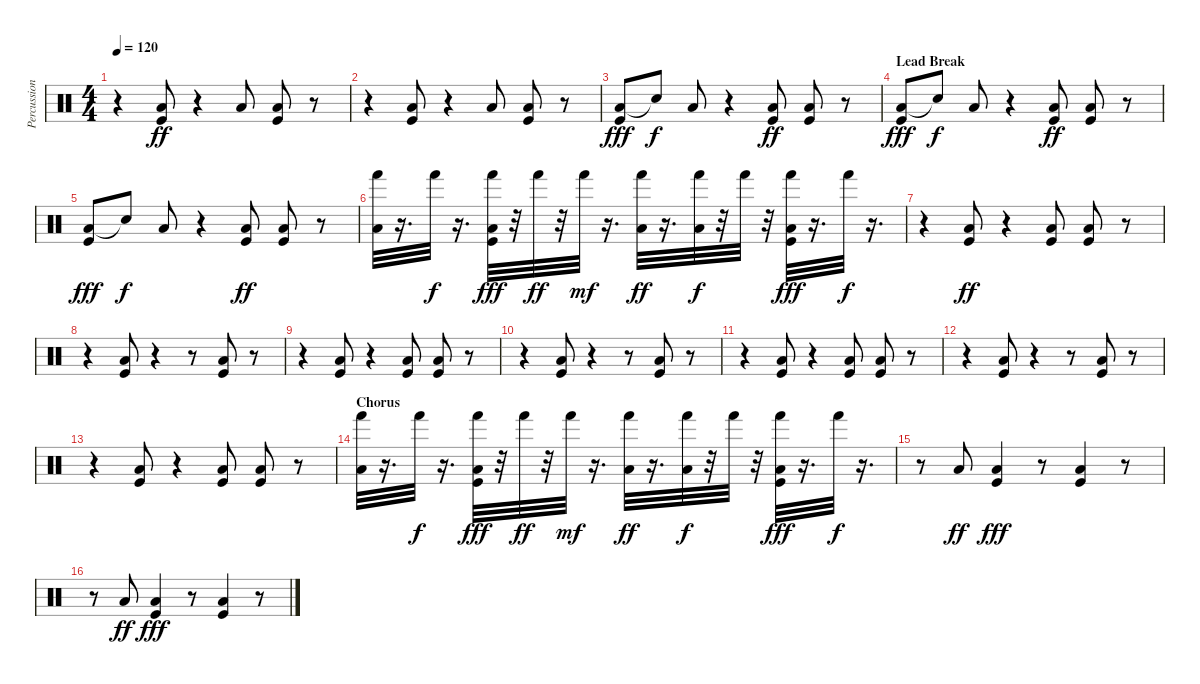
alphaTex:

\track ("Percussion" "Percussion") {instrument percussion}
\staff {score}
\articulation defaults
\ts (4 4)
\tempo 120
\clef neutral
\ks c
r.4{dy ff} ("Low Floor Tom (hit)" "Kick (hit)").8 r.4 "Low Tom (hit)".8 ("Low Floor Tom (hit)" "Kick (hit)").8 r.8 |
r.4 ("Low Floor Tom (hit)" "Kick (hit)").8 r.4 "Low Tom (hit)".8 ("Low Floor Tom (hit)" "Kick (hit)").8 r.8 |
("Low Floor Tom (hit)" "Kick (hit)").8{dy fff} "Snare (hit)"{t}.8{dy f} "Low Floor Tom (hit)".8 r.4 ("Low Tom (hit)" "Kick (hit)").8{dy ff} ("Low Floor Tom (hit)" "Kick (hit)").8 r.8 |
\section ("" "Lead Break")
("Low Floor Tom (hit)" "Kick (hit)").8{dy fff} "Snare (hit)"{t}.8{dy f} "Low Floor Tom (hit)".8 r.4 ("Low Tom (hit)" "Kick (hit)").8{dy ff} ("Low Floor Tom (hit)" "Kick (hit)").8 r.8 |
("Low Floor Tom (hit)" "Kick (hit)").8{dy fff} "Snare (hit)"{t}.8{dy f} "Low Floor Tom (hit)".8 r.4 ("Low Tom (hit)" "Kick (hit)").8{dy ff} ("Low Floor Tom (hit)" "Kick (hit)").8 r.8 |
("Hand (hit)" "Low Floor Tom (hit)").32 r.16{d} "Hand (hit)".32{dy f} r.16{d} ("Hand (hit)" "Low Floor Tom (hit)" "Kick (hit)").32{dy fff} r.32 "Hand (hit)".32{dy ff} r.32 "Hand (hit)".32{dy mf} r.16{d} ("Hand (hit)" "Low Floor Tom (hit)").32{dy ff} r.16{d} ("Hand (hit)" "Low Tom (hit)").32{dy f} r.32 "Hand (hit)".32 r.32 ("Hand (hit)" "Low Floor Tom (hit)" "Kick (hit)").32{dy fff} r.16{d} "Hand (hit)".32{dy f} r.16{d} |
r.4 ("Low Floor Tom (hit)" "Kick (hit)").8{dy ff} r.4 ("Low Tom (hit)" "Kick (hit)").8 ("Low Floor Tom (hit)" "Kick (hit)").8 r.8 |
r.4 ("Low Floor Tom (hit)" "Kick (hit)").8 r.4 r.8 ("Low Floor Tom (hit)" "Kick (hit)").8 r.8 |
r.4 ("Low Floor Tom (hit)" "Kick (hit)").8 r.4 ("Low Tom (hit)" "Kick (hit)").8 ("Low Floor Tom (hit)" "Kick (hit)").8 r.8 |
r.4 ("Low Floor Tom (hit)" "Kick (hit)").8 r.4 r.8 ("Low Floor Tom (hit)" "Kick (hit)").8 r.8 |
r.4 ("Low Floor Tom (hit)" "Kick (hit)").8 r.4 ("Low Tom (hit)" "Kick (hit)").8 ("Low Floor Tom (hit)" "Kick (hit)").8 r.8 |
r.4 ("Low Floor Tom (hit)" "Kick (hit)").8 r.4 r.8 ("Low Floor Tom (hit)" "Kick (hit)").8 r.8 |
r.4 ("Low Floor Tom (hit)" "Kick (hit)").8 r.4 ("Low Tom (hit)" "Kick (hit)").8 ("Low Floor Tom (hit)" "Kick (hit)").8 r.8 |
\section ("" "Chorus")
("Hand (hit)" "Low Floor Tom (hit)").32 r.16{d} "Hand (hit)".32{dy f} r.16{d} ("Hand (hit)" "Low Floor Tom (hit)" "Kick (hit)").32{dy fff} r.32 "Hand (hit)".32{dy ff} r.32 "Hand (hit)".32{dy mf} r.16{d} ("Hand (hit)" "Low Floor Tom (hit)").32{dy ff} r.16{d} ("Hand (hit)" "Low Tom (hit)").32{dy f} r.32 "Hand (hit)".32 r.32 ("Hand (hit)" "Low Floor Tom (hit)" "Kick (hit)").32{dy fff} r.16{d} "Hand (hit)".32{dy f} r.16{d} |
r.8 "Low Tom (hit)".8{dy ff} ("Low Floor Tom (hit)" "Kick (hit)").4{dy fff} r.8 ("Low Floor Tom (hit)" "Kick (hit)").4 r.8 |
r.8 "Low Tom (hit)".8{dy ff} ("Low Floor Tom (hit)" "Kick (hit)").4{dy fff} r.8 ("Low Floor Tom (hit)" "Kick (hit)").4 r.8
